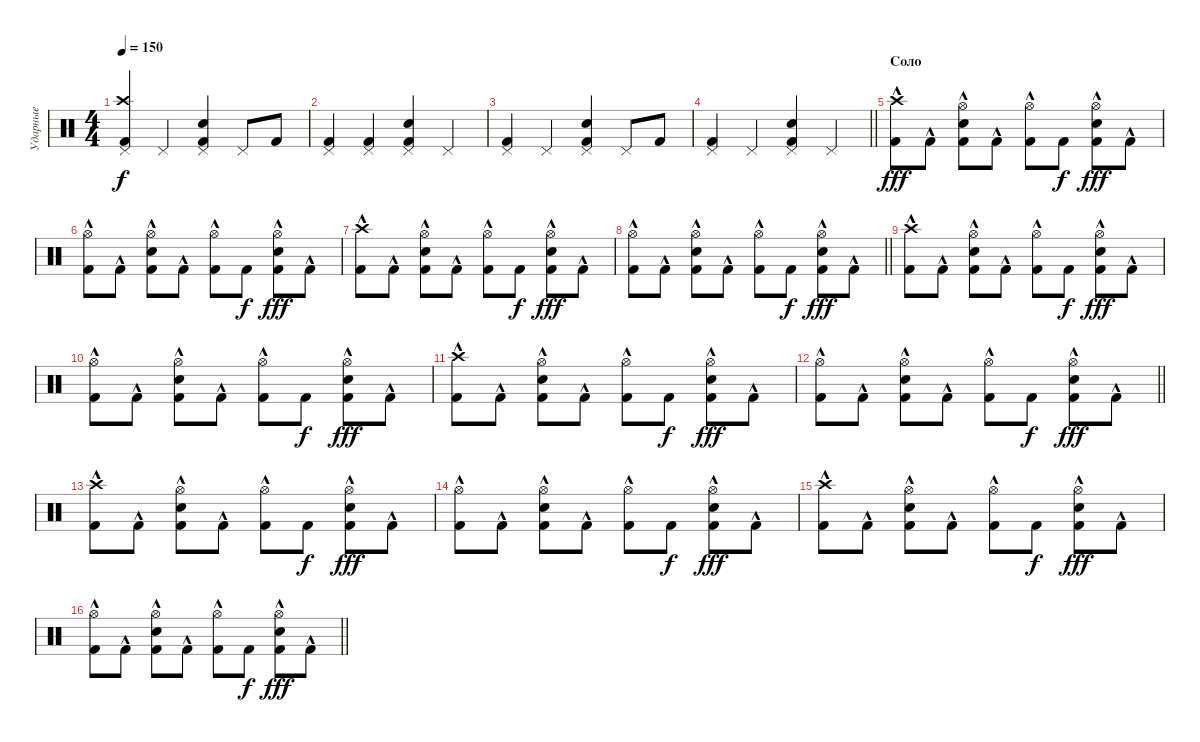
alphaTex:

\track ("Ударные" "Ударные") {instrument percussion}
\staff {score}
\articulation defaults
\ts (4 4)
\tempo 150
\clef neutral
\ks c
("Kick (hit) 2" "Crash high (hit)" "Pedal Hi-Hat (hit)").4{dy f} "Pedal Hi-Hat (hit)".4 ("Kick (hit) 2" "Snare (hit) 2" "Pedal Hi-Hat (hit)").4 "Pedal Hi-Hat (hit)".8 "Kick (hit) 2".8 |
("Kick (hit) 2" "Pedal Hi-Hat (hit)").4 ("Kick (hit) 2" "Pedal Hi-Hat (hit)").4 ("Kick (hit) 2" "Snare (hit) 2" "Pedal Hi-Hat (hit)").4 "Pedal Hi-Hat (hit)".4 |
("Kick (hit) 2" "Pedal Hi-Hat (hit)").4 "Pedal Hi-Hat (hit)".4 ("Kick (hit) 2" "Snare (hit) 2" "Pedal Hi-Hat (hit)").4 "Pedal Hi-Hat (hit)".8 "Kick (hit) 2".8 |
\barLineRight lightlight
("Kick (hit) 2" "Pedal Hi-Hat (hit)").4 "Pedal Hi-Hat (hit)".4 ("Kick (hit) 2" "Snare (hit) 2" "Pedal Hi-Hat (hit)").4 "Pedal Hi-Hat (hit)".4 |
\section ("" "Соло")
("Kick (hit) 2"{hac} "Crash high (hit)").8{dy fff} "Kick (hit) 2"{hac}.8 ("Kick (hit) 2"{hac} "Hi-Hat (open)" "Snare (hit) 2").8 "Kick (hit) 2"{hac}.8 ("Kick (hit) 2"{hac} "Hi-Hat (open)").8 "Kick (hit) 2".8{dy f} ("Kick (hit) 2"{hac} "Hi-Hat (open)" "Snare (hit) 2").8{dy fff} "Kick (hit) 2"{hac}.8 |
("Kick (hit) 2"{hac} "Hi-Hat (open)").8 "Kick (hit) 2"{hac}.8 ("Kick (hit) 2"{hac} "Hi-Hat (open)" "Snare (hit) 2").8 "Kick (hit) 2"{hac}.8 ("Kick (hit) 2"{hac} "Hi-Hat (open)").8 "Kick (hit) 2".8{dy f} ("Kick (hit) 2"{hac} "Hi-Hat (open)" "Snare (hit) 2").8{dy fff} "Kick (hit) 2"{hac}.8 |
("Kick (hit) 2"{hac} "Crash high (hit)").8 "Kick (hit) 2"{hac}.8 ("Kick (hit) 2"{hac} "Hi-Hat (open)" "Snare (hit) 2").8 "Kick (hit) 2"{hac}.8 ("Kick (hit) 2"{hac} "Hi-Hat (open)").8 "Kick (hit) 2".8{dy f} ("Kick (hit) 2"{hac} "Hi-Hat (open)" "Snare (hit) 2").8{dy fff} "Kick (hit) 2"{hac}.8 |
\barLineRight lightlight
("Kick (hit) 2"{hac} "Hi-Hat (open)").8 "Kick (hit) 2"{hac}.8 ("Kick (hit) 2"{hac} "Hi-Hat (open)" "Snare (hit) 2").8 "Kick (hit) 2"{hac}.8 ("Kick (hit) 2"{hac} "Hi-Hat (open)").8 "Kick (hit) 2".8{dy f} ("Kick (hit) 2"{hac} "Hi-Hat (open)" "Snare (hit) 2").8{dy fff} "Kick (hit) 2"{hac}.8 |
("Kick (hit) 2"{hac} "Crash high (hit)").8 "Kick (hit) 2"{hac}.8 ("Kick (hit) 2"{hac} "Hi-Hat (open)" "Snare (hit) 2").8 "Kick (hit) 2"{hac}.8 ("Kick (hit) 2"{hac} "Hi-Hat (open)").8 "Kick (hit) 2".8{dy f} ("Kick (hit) 2"{hac} "Hi-Hat (open)" "Snare (hit) 2").8{dy fff} "Kick (hit) 2"{hac}.8 |
("Kick (hit) 2"{hac} "Hi-Hat (open)").8 "Kick (hit) 2"{hac}.8 ("Kick (hit) 2"{hac} "Hi-Hat (open)" "Snare (hit) 2").8 "Kick (hit) 2"{hac}.8 ("Kick (hit) 2"{hac} "Hi-Hat (open)").8 "Kick (hit) 2".8{dy f} ("Kick (hit) 2"{hac} "Hi-Hat (open)" "Snare (hit) 2").8{dy fff} "Kick (hit) 2"{hac}.8 |
("Kick (hit) 2"{hac} "Crash high (hit)").8 "Kick (hit) 2"{hac}.8 ("Kick (hit) 2"{hac} "Hi-Hat (open)" "Snare (hit) 2").8 "Kick (hit) 2"{hac}.8 ("Kick (hit) 2"{hac} "Hi-Hat (open)").8 "Kick (hit) 2".8{dy f} ("Kick (hit) 2"{hac} "Hi-Hat (open)" "Snare (hit) 2").8{dy fff} "Kick (hit) 2"{hac}.8 |
\barLineRight lightlight
("Kick (hit) 2"{hac} "Hi-Hat (open)").8 "Kick (hit) 2"{hac}.8 ("Kick (hit) 2"{hac} "Hi-Hat (open)" "Snare (hit) 2").8 "Kick (hit) 2"{hac}.8 ("Kick (hit) 2"{hac} "Hi-Hat (open)").8 "Kick (hit) 2".8{dy f} ("Kick (hit) 2"{hac} "Hi-Hat (open)" "Snare (hit) 2").8{dy fff} "Kick (hit) 2"{hac}.8 |
("Kick (hit) 2"{hac} "Crash high (hit)").8 "Kick (hit) 2"{hac}.8 ("Kick (hit) 2"{hac} "Hi-Hat (open)" "Snare (hit) 2").8 "Kick (hit) 2"{hac}.8 ("Kick (hit) 2"{hac} "Hi-Hat (open)").8 "Kick (hit) 2".8{dy f} ("Kick (hit) 2"{hac} "Hi-Hat (open)" "Snare (hit) 2").8{dy fff} "Kick (hit) 2"{hac}.8 |
("Kick (hit) 2"{hac} "Hi-Hat (open)").8 "Kick (hit) 2"{hac}.8 ("Kick (hit) 2"{hac} "Hi-Hat (open)" "Snare (hit) 2").8 "Kick (hit) 2"{hac}.8 ("Kick (hit) 2"{hac} "Hi-Hat (open)").8 "Kick (hit) 2".8{dy f} ("Kick (hit) 2"{hac} "Hi-Hat (open)" "Snare (hit) 2").8{dy fff} "Kick (hit) 2"{hac}.8 |
("Kick (hit) 2"{hac} "Crash high (hit)").8 "Kick (hit) 2"{hac}.8 ("Kick (hit) 2"{hac} "Hi-Hat (open)" "Snare (hit) 2").8 "Kick (hit) 2"{hac}.8 ("Kick (hit) 2"{hac} "Hi-Hat (open)").8 "Kick (hit) 2".8{dy f} ("Kick (hit) 2"{hac} "Hi-Hat (open)" "Snare (hit) 2").8{dy fff} "Kick (hit) 2"{hac}.8 |
\barLineRight lightlight
("Kick (hit) 2"{hac} "Hi-Hat (open)").8 "Kick (hit) 2"{hac}.8 ("Kick (hit) 2"{hac} "Hi-Hat (open)" "Snare (hit) 2").8 "Kick (hit) 2"{hac}.8 ("Kick (hit) 2"{hac} "Hi-Hat (open)").8 "Kick (hit) 2".8{dy f} ("Kick (hit) 2"{hac} "Hi-Hat (open)" "Snare (hit) 2").8{dy fff} "Kick (hit) 2"{hac}.8
